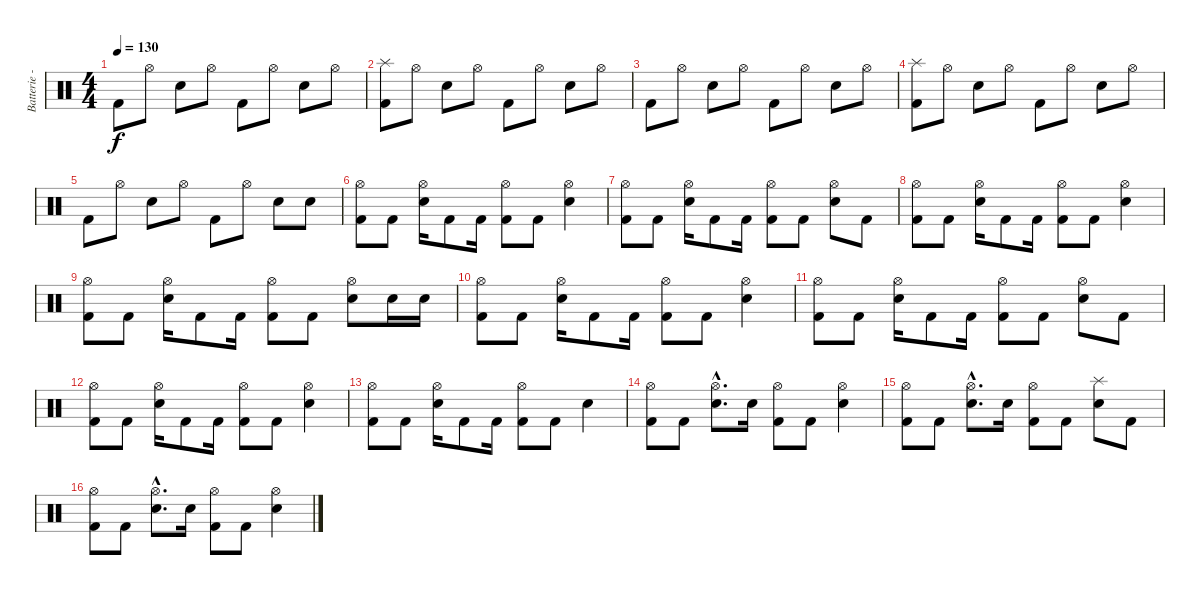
\track ("Batterie - Anton" "Batterie -") {instrument percussion}
\staff {score}
\articulation defaults
\ts (4 4)
\tempo 130
\clef neutral
\ks c "Kick (hit) 2".8{dy f} "Hi-Hat (open)".8 "Electric Snare (hit)".8 "Hi-Hat (open)".8 "Kick (hit) 2".8 "Hi-Hat (open)".8 "Electric Snare (hit)".8 "Hi-Hat (open)".8
|
("Splash (hit)" "Kick (hit) 2").8 "Hi-Hat (open)".8 "Electric Snare (hit)".8 "Hi-Hat (open)".8 "Kick (hit) 2".8 "Hi-Hat (open)".8 "Electric Snare (hit)".8 "Hi-Hat (open)".8 |
"Kick (hit) 2".8 "Hi-Hat (open)".8 "Electric Snare (hit)".8 "Hi-Hat (open)".8 "Kick (hit) 2".8 "Hi-Hat (open)".8 "Electric Snare (hit)".8 "Hi-Hat (open)".8 |
("Splash (hit)" "Kick (hit) 2").8 "Hi-Hat (open)".8 "Electric Snare (hit)".8 "Hi-Hat (open)".8 "Kick (hit) 2".8 "Hi-Hat (open)".8 "Electric Snare (hit)".8 "Hi-Hat (open)".8 |
"Kick (hit) 2".8 "Hi-Hat (open)".8 "Electric Snare (hit)".8 "Hi-Hat (open)".8 "Kick (hit) 2".8 "Hi-Hat (open)".8 "Electric Snare (hit)".8 "Electric Snare (hit)".8 |
("Hi-Hat (open)" "Kick (hit) 2").8 "Kick (hit) 2".8 ("Hi-Hat (open)" "Electric Snare (hit)").16 "Kick (hit) 2".8 "Kick (hit) 2".16 ("Hi-Hat (open)" "Kick (hit) 2").8 "Kick (hit) 2".8 ("Hi-Hat (open)" "Electric Snare (hit)").4 |
("Hi-Hat (open)" "Kick (hit) 2").8 "Kick (hit) 2".8 ("Hi-Hat (open)" "Electric Snare (hit)").16 "Kick (hit) 2".8 "Kick (hit) 2".16 ("Hi-Hat (open)" "Kick (hit) 2").8 "Kick (hit) 2".8 ("Hi-Hat (open)" "Electric Snare (hit)").8 "Kick (hit) 2".8 |
("Hi-Hat (open)" "Kick (hit) 2").8 "Kick (hit) 2".8 ("Hi-Hat (open)" "Electric Snare (hit)").16 "Kick (hit) 2".8 "Kick (hit) 2".16 ("Hi-Hat (open)" "Kick (hit) 2").8 "Kick (hit) 2".8 ("Hi-Hat (open)" "Electric Snare (hit)").4 |
("Hi-Hat (open)" "Kick (hit) 2").8 "Kick (hit) 2".8 ("Hi-Hat (open)" "Electric Snare (hit)").16 "Kick (hit) 2".8 "Kick (hit) 2".16 ("Hi-Hat (open)" "Kick (hit) 2").8 "Kick (hit) 2".8 ("Hi-Hat (open)" "Electric Snare (hit)").8 "Electric Snare (hit)".16 "Electric Snare (hit)".16 |
("Hi-Hat (open)" "Kick (hit) 2").8 "Kick (hit) 2".8 ("Hi-Hat (open)" "Electric Snare (hit)").16 "Kick (hit) 2".8 "Kick (hit) 2".16 ("Hi-Hat (open)" "Kick (hit) 2").8 "Kick (hit) 2".8 ("Hi-Hat (open)" "Electric Snare (hit)").4 |
("Hi-Hat (open)" "Kick (hit) 2").8 "Kick (hit) 2".8 ("Hi-Hat (open)" "Electric Snare (hit)").16 "Kick (hit) 2".8 "Kick (hit) 2".16 ("Hi-Hat (open)" "Kick (hit) 2").8 "Kick (hit) 2".8 ("Hi-Hat (open)" "Electric Snare (hit)").8 "Kick (hit) 2".8 |
("Hi-Hat (open)" "Kick (hit) 2").8 "Kick (hit) 2".8 ("Hi-Hat (open)" "Electric Snare (hit)").16 "Kick (hit) 2".8 "Kick (hit) 2".16 ("Hi-Hat (open)" "Kick (hit) 2").8 "Kick (hit) 2".8 ("Hi-Hat (open)" "Electric Snare (hit)").4 |
("Hi-Hat (open)" "Kick (hit) 2").8 "Kick (hit) 2".8 ("Hi-Hat (open)" "Electric Snare (hit)").16 "Kick (hit) 2".8 "Kick (hit) 2".16 ("Hi-Hat (open)" "Kick (hit) 2").8 "Kick (hit) 2".8 "Electric Snare (hit)".4 |
("Hi-Hat (open)" "Kick (hit) 2").8 "Kick (hit) 2".8 ("Hi-Hat (open)"{hac} "Electric Snare (hit)"{hac}).8{d} "Electric Snare (hit)".16 ("Hi-Hat (open)" "Kick (hit) 2").8 "Kick (hit) 2".8 ("Hi-Hat (open)" "Electric Snare (hit)").4 |
("Hi-Hat (open)" "Kick (hit) 2").8 "Kick (hit) 2".8 ("Hi-Hat (open)"{hac} "Electric Snare (hit)"{hac}).8{d} "Electric Snare (hit)".16 ("Hi-Hat (open)" "Kick (hit) 2").8 "Kick (hit) 2".8 ("Splash (hit)" "Electric Snare (hit)").8 "Kick (hit) 2".8 |
("Hi-Hat (open)" "Kick (hit) 2").8 "Kick (hit) 2".8 ("Hi-Hat (open)"{hac} "Electric Snare (hit)"{hac}).8{d} "Electric Snare (hit)".16 ("Hi-Hat (open)" "Kick (hit) 2").8 "Kick (hit) 2".8 ("Hi-Hat (open)" "Electric Snare (hit)").4
